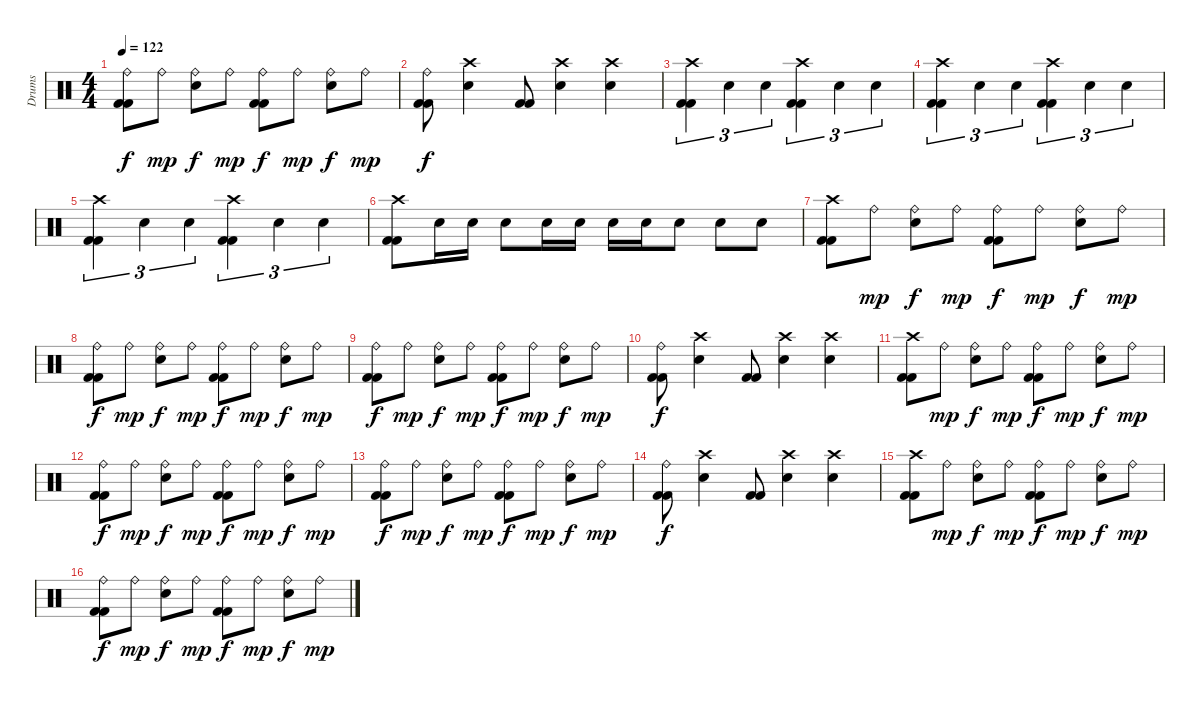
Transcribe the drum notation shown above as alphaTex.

\track ("Drums" "Drums") {instrument percussion}
\staff {score}
\articulation defaults
\ts (4 4)
\tempo 122
\clef neutral
\ks c
("Ride (bell)" "Kick (hit) 2" "Kick (hit) 2").8{dy f} "Ride (bell)".8{dy mp} ("Ride (bell)" "Snare (hit) 2").8{dy f} "Ride (bell)".8{dy mp} ("Ride (bell)" "Kick (hit) 2" "Kick (hit) 2").8{dy f} "Ride (bell)".8{dy mp} ("Ride (bell)" "Snare (hit) 2").8{dy f} "Ride (bell)".8{dy mp} |
("Ride (bell)" "Kick (hit) 2" "Kick (hit) 2").8{dy f} ("Crash high (hit)" "Snare (hit) 2").4 ("Kick (hit) 2" "Kick (hit) 2").8 ("Crash high (hit)" "Snare (hit) 2").4 ("Crash high (hit)" "Snare (hit) 2").4 |
("Crash high (hit)" "Kick (hit) 2" "Kick (hit) 2").4{tu (3 2)} "Snare (hit) 2".4{tu (3 2)} "Snare (hit) 2".4{tu (3 2)} ("Crash high (hit)" "Kick (hit) 2" "Kick (hit) 2").4{tu (3 2)} "Snare (hit) 2".4{tu (3 2)} "Snare (hit) 2".4{tu (3 2)} |
("Crash high (hit)" "Kick (hit) 2" "Kick (hit) 2").4{tu (3 2)} "Snare (hit) 2".4{tu (3 2)} "Snare (hit) 2".4{tu (3 2)} ("Crash high (hit)" "Kick (hit) 2" "Kick (hit) 2").4{tu (3 2)} "Snare (hit) 2".4{tu (3 2)} "Snare (hit) 2".4{tu (3 2)} |
("Crash high (hit)" "Kick (hit) 2" "Kick (hit) 2").4{tu (3 2)} "Snare (hit) 2".4{tu (3 2)} "Snare (hit) 2".4{tu (3 2)} ("Crash high (hit)" "Kick (hit) 2" "Kick (hit) 2").4{tu (3 2)} "Snare (hit) 2".4{tu (3 2)} "Snare (hit) 2".4{tu (3 2)} |
("Crash high (hit)" "Kick (hit) 2" "Kick (hit) 2").8 "Snare (hit) 2".16 "Snare (hit) 2".16 "Snare (hit) 2".8 "Snare (hit) 2".16 "Snare (hit) 2".16 "Snare (hit) 2".16 "Snare (hit) 2".16 "Snare (hit) 2".8 "Snare (hit) 2".8 "Snare (hit) 2".8 |
("Crash high (hit)" "Kick (hit) 2" "Kick (hit) 2").8 "Ride (bell)".8{dy mp} ("Ride (bell)" "Snare (hit) 2").8{dy f} "Ride (bell)".8{dy mp} ("Ride (bell)" "Kick (hit) 2" "Kick (hit) 2").8{dy f} "Ride (bell)".8{dy mp} ("Ride (bell)" "Snare (hit) 2").8{dy f} "Ride (bell)".8{dy mp} |
("Ride (bell)" "Kick (hit) 2" "Kick (hit) 2").8{dy f} "Ride (bell)".8{dy mp} ("Ride (bell)" "Snare (hit) 2").8{dy f} "Ride (bell)".8{dy mp} ("Ride (bell)" "Kick (hit) 2" "Kick (hit) 2").8{dy f} "Ride (bell)".8{dy mp} ("Ride (bell)" "Snare (hit) 2").8{dy f} "Ride (bell)".8{dy mp} |
("Ride (bell)" "Kick (hit) 2" "Kick (hit) 2").8{dy f} "Ride (bell)".8{dy mp} ("Ride (bell)" "Snare (hit) 2").8{dy f} "Ride (bell)".8{dy mp} ("Ride (bell)" "Kick (hit) 2" "Kick (hit) 2").8{dy f} "Ride (bell)".8{dy mp} ("Ride (bell)" "Snare (hit) 2").8{dy f} "Ride (bell)".8{dy mp} |
("Ride (bell)" "Kick (hit) 2" "Kick (hit) 2").8{dy f} ("Crash high (hit)" "Snare (hit) 2").4 ("Kick (hit) 2" "Kick (hit) 2").8 ("Crash high (hit)" "Snare (hit) 2").4 ("Crash high (hit)" "Snare (hit) 2").4 |
("Crash high (hit)" "Kick (hit) 2" "Kick (hit) 2").8 "Ride (bell)".8{dy mp} ("Ride (bell)" "Snare (hit) 2").8{dy f} "Ride (bell)".8{dy mp} ("Ride (bell)" "Kick (hit) 2" "Kick (hit) 2").8{dy f} "Ride (bell)".8{dy mp} ("Ride (bell)" "Snare (hit) 2").8{dy f} "Ride (bell)".8{dy mp} |
("Ride (bell)" "Kick (hit) 2" "Kick (hit) 2").8{dy f} "Ride (bell)".8{dy mp} ("Ride (bell)" "Snare (hit) 2").8{dy f} "Ride (bell)".8{dy mp} ("Ride (bell)" "Kick (hit) 2" "Kick (hit) 2").8{dy f} "Ride (bell)".8{dy mp} ("Ride (bell)" "Snare (hit) 2").8{dy f} "Ride (bell)".8{dy mp} |
("Ride (bell)" "Kick (hit) 2" "Kick (hit) 2").8{dy f} "Ride (bell)".8{dy mp} ("Ride (bell)" "Snare (hit) 2").8{dy f} "Ride (bell)".8{dy mp} ("Ride (bell)" "Kick (hit) 2" "Kick (hit) 2").8{dy f} "Ride (bell)".8{dy mp} ("Ride (bell)" "Snare (hit) 2").8{dy f} "Ride (bell)".8{dy mp} |
("Ride (bell)" "Kick (hit) 2" "Kick (hit) 2").8{dy f} ("Crash high (hit)" "Snare (hit) 2").4 ("Kick (hit) 2" "Kick (hit) 2").8 ("Crash high (hit)" "Snare (hit) 2").4 ("Crash high (hit)" "Snare (hit) 2").4 |
("Crash high (hit)" "Kick (hit) 2" "Kick (hit) 2").8 "Ride (bell)".8{dy mp} ("Ride (bell)" "Snare (hit) 2").8{dy f} "Ride (bell)".8{dy mp} ("Ride (bell)" "Kick (hit) 2" "Kick (hit) 2").8{dy f} "Ride (bell)".8{dy mp} ("Ride (bell)" "Snare (hit) 2").8{dy f} "Ride (bell)".8{dy mp} |
("Ride (bell)" "Kick (hit) 2" "Kick (hit) 2").8{dy f} "Ride (bell)".8{dy mp} ("Ride (bell)" "Snare (hit) 2").8{dy f} "Ride (bell)".8{dy mp} ("Ride (bell)" "Kick (hit) 2" "Kick (hit) 2").8{dy f} "Ride (bell)".8{dy mp} ("Ride (bell)" "Snare (hit) 2").8{dy f} "Ride (bell)".8{dy mp}
